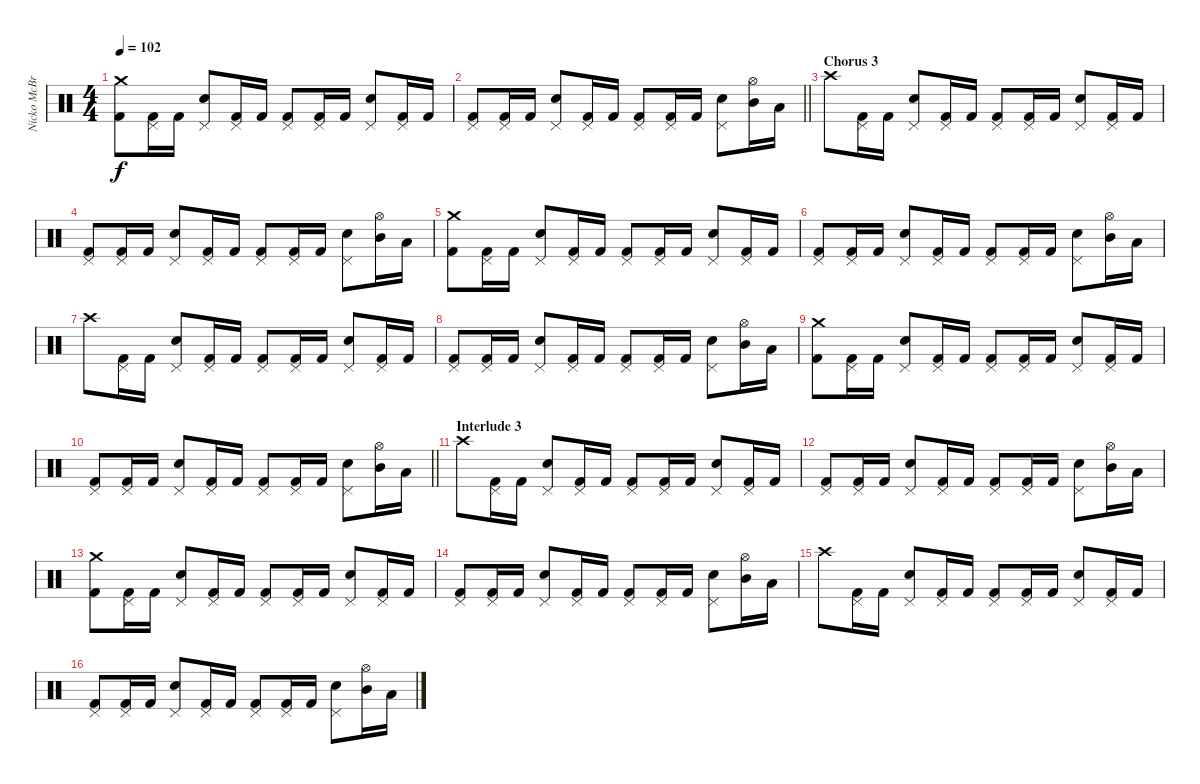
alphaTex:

\track ("Nicko McBrain" "Nicko McBr") {instrument percussion}
\staff {score}
\articulation defaults
\ts (4 4)
\tempo 102
\clef neutral
\ks c
("Crash medium (hit)" "Kick (hit) 2").8{dy f} ("Pedal Hi-Hat (hit)" "Kick (hit) 2").16 "Kick (hit) 2".16 ("Pedal Hi-Hat (hit)" "Electric Snare (hit)").8 ("Pedal Hi-Hat (hit)" "Kick (hit) 2").16 "Kick (hit) 2".16 ("Pedal Hi-Hat (hit)" "Kick (hit) 2").8 ("Pedal Hi-Hat (hit)" "Kick (hit) 2").16 "Kick (hit) 2".16 ("Pedal Hi-Hat (hit)" "Electric Snare (hit)").8 ("Pedal Hi-Hat (hit)" "Kick (hit) 2").16 "Kick (hit) 2".16 |
\barLineRight lightlight
("Pedal Hi-Hat (hit)" "Kick (hit) 2").8 ("Pedal Hi-Hat (hit)" "Kick (hit) 2").16 "Kick (hit) 2".16 ("Pedal Hi-Hat (hit)" "Electric Snare (hit)").8 ("Pedal Hi-Hat (hit)" "Kick (hit) 2").16 "Kick (hit) 2".16 ("Pedal Hi-Hat (hit)" "Kick (hit) 2").8 ("Pedal Hi-Hat (hit)" "Kick (hit) 2").16 "Kick (hit) 2".16 ("Pedal Hi-Hat (hit)" "Electric Snare (hit)").8 ("Hi-Hat (open)" "Mid Tom (hit)").16 "Low Tom (hit)".16 |
\section ("" "Chorus 3")
"Crash high (hit)".8 ("Pedal Hi-Hat (hit)" "Kick (hit) 2").16 "Kick (hit) 2".16 ("Pedal Hi-Hat (hit)" "Electric Snare (hit)").8 ("Pedal Hi-Hat (hit)" "Kick (hit) 2").16 "Kick (hit) 2".16 ("Pedal Hi-Hat (hit)" "Kick (hit) 2").8 ("Pedal Hi-Hat (hit)" "Kick (hit) 2").16 "Kick (hit) 2".16 ("Pedal Hi-Hat (hit)" "Electric Snare (hit)").8 ("Pedal Hi-Hat (hit)" "Kick (hit) 2").16 "Kick (hit) 2".16 |
("Pedal Hi-Hat (hit)" "Kick (hit) 2").8 ("Pedal Hi-Hat (hit)" "Kick (hit) 2").16 "Kick (hit) 2".16 ("Pedal Hi-Hat (hit)" "Electric Snare (hit)").8 ("Pedal Hi-Hat (hit)" "Kick (hit) 2").16 "Kick (hit) 2".16 ("Pedal Hi-Hat (hit)" "Kick (hit) 2").8 ("Pedal Hi-Hat (hit)" "Kick (hit) 2").16 "Kick (hit) 2".16 ("Pedal Hi-Hat (hit)" "Electric Snare (hit)").8 ("Hi-Hat (open)" "Mid Tom (hit)").16 "Low Tom (hit)".16 |
("Crash medium (hit)" "Kick (hit) 2").8 ("Pedal Hi-Hat (hit)" "Kick (hit) 2").16 "Kick (hit) 2".16 ("Pedal Hi-Hat (hit)" "Electric Snare (hit)").8 ("Pedal Hi-Hat (hit)" "Kick (hit) 2").16 "Kick (hit) 2".16 ("Pedal Hi-Hat (hit)" "Kick (hit) 2").8 ("Pedal Hi-Hat (hit)" "Kick (hit) 2").16 "Kick (hit) 2".16 ("Pedal Hi-Hat (hit)" "Electric Snare (hit)").8 ("Pedal Hi-Hat (hit)" "Kick (hit) 2").16 "Kick (hit) 2".16 |
("Pedal Hi-Hat (hit)" "Kick (hit) 2").8 ("Pedal Hi-Hat (hit)" "Kick (hit) 2").16 "Kick (hit) 2".16 ("Pedal Hi-Hat (hit)" "Electric Snare (hit)").8 ("Pedal Hi-Hat (hit)" "Kick (hit) 2").16 "Kick (hit) 2".16 ("Pedal Hi-Hat (hit)" "Kick (hit) 2").8 ("Pedal Hi-Hat (hit)" "Kick (hit) 2").16 "Kick (hit) 2".16 ("Pedal Hi-Hat (hit)" "Electric Snare (hit)").8 ("Hi-Hat (open)" "Mid Tom (hit)").16 "Low Tom (hit)".16 |
"Crash high (hit)".8 ("Pedal Hi-Hat (hit)" "Kick (hit) 2").16 "Kick (hit) 2".16 ("Pedal Hi-Hat (hit)" "Electric Snare (hit)").8 ("Pedal Hi-Hat (hit)" "Kick (hit) 2").16 "Kick (hit) 2".16 ("Pedal Hi-Hat (hit)" "Kick (hit) 2").8 ("Pedal Hi-Hat (hit)" "Kick (hit) 2").16 "Kick (hit) 2".16 ("Pedal Hi-Hat (hit)" "Electric Snare (hit)").8 ("Pedal Hi-Hat (hit)" "Kick (hit) 2").16 "Kick (hit) 2".16 |
("Pedal Hi-Hat (hit)" "Kick (hit) 2").8 ("Pedal Hi-Hat (hit)" "Kick (hit) 2").16 "Kick (hit) 2".16 ("Pedal Hi-Hat (hit)" "Electric Snare (hit)").8 ("Pedal Hi-Hat (hit)" "Kick (hit) 2").16 "Kick (hit) 2".16 ("Pedal Hi-Hat (hit)" "Kick (hit) 2").8 ("Pedal Hi-Hat (hit)" "Kick (hit) 2").16 "Kick (hit) 2".16 ("Pedal Hi-Hat (hit)" "Electric Snare (hit)").8 ("Hi-Hat (open)" "Mid Tom (hit)").16 "Low Tom (hit)".16 |
("Crash medium (hit)" "Kick (hit) 2").8 ("Pedal Hi-Hat (hit)" "Kick (hit) 2").16 "Kick (hit) 2".16 ("Pedal Hi-Hat (hit)" "Electric Snare (hit)").8 ("Pedal Hi-Hat (hit)" "Kick (hit) 2").16 "Kick (hit) 2".16 ("Pedal Hi-Hat (hit)" "Kick (hit) 2").8 ("Pedal Hi-Hat (hit)" "Kick (hit) 2").16 "Kick (hit) 2".16 ("Pedal Hi-Hat (hit)" "Electric Snare (hit)").8 ("Pedal Hi-Hat (hit)" "Kick (hit) 2").16 "Kick (hit) 2".16 |
\barLineRight lightlight
("Pedal Hi-Hat (hit)" "Kick (hit) 2").8 ("Pedal Hi-Hat (hit)" "Kick (hit) 2").16 "Kick (hit) 2".16 ("Pedal Hi-Hat (hit)" "Electric Snare (hit)").8 ("Pedal Hi-Hat (hit)" "Kick (hit) 2").16 "Kick (hit) 2".16 ("Pedal Hi-Hat (hit)" "Kick (hit) 2").8 ("Pedal Hi-Hat (hit)" "Kick (hit) 2").16 "Kick (hit) 2".16 ("Pedal Hi-Hat (hit)" "Electric Snare (hit)").8 ("Hi-Hat (open)" "Mid Tom (hit)").16 "Low Tom (hit)".16 |
\section ("" "Interlude 3")
"Crash high (hit)".8 ("Pedal Hi-Hat (hit)" "Kick (hit) 2").16 "Kick (hit) 2".16 ("Pedal Hi-Hat (hit)" "Electric Snare (hit)").8 ("Pedal Hi-Hat (hit)" "Kick (hit) 2").16 "Kick (hit) 2".16 ("Pedal Hi-Hat (hit)" "Kick (hit) 2").8 ("Pedal Hi-Hat (hit)" "Kick (hit) 2").16 "Kick (hit) 2".16 ("Pedal Hi-Hat (hit)" "Electric Snare (hit)").8 ("Pedal Hi-Hat (hit)" "Kick (hit) 2").16 "Kick (hit) 2".16 |
("Pedal Hi-Hat (hit)" "Kick (hit) 2").8 ("Pedal Hi-Hat (hit)" "Kick (hit) 2").16 "Kick (hit) 2".16 ("Pedal Hi-Hat (hit)" "Electric Snare (hit)").8 ("Pedal Hi-Hat (hit)" "Kick (hit) 2").16 "Kick (hit) 2".16 ("Pedal Hi-Hat (hit)" "Kick (hit) 2").8 ("Pedal Hi-Hat (hit)" "Kick (hit) 2").16 "Kick (hit) 2".16 ("Pedal Hi-Hat (hit)" "Electric Snare (hit)").8 ("Hi-Hat (open)" "Mid Tom (hit)").16 "Low Tom (hit)".16 |
("Crash medium (hit)" "Kick (hit) 2").8 ("Pedal Hi-Hat (hit)" "Kick (hit) 2").16 "Kick (hit) 2".16 ("Pedal Hi-Hat (hit)" "Electric Snare (hit)").8 ("Pedal Hi-Hat (hit)" "Kick (hit) 2").16 "Kick (hit) 2".16 ("Pedal Hi-Hat (hit)" "Kick (hit) 2").8 ("Pedal Hi-Hat (hit)" "Kick (hit) 2").16 "Kick (hit) 2".16 ("Pedal Hi-Hat (hit)" "Electric Snare (hit)").8 ("Pedal Hi-Hat (hit)" "Kick (hit) 2").16 "Kick (hit) 2".16 |
("Pedal Hi-Hat (hit)" "Kick (hit) 2").8 ("Pedal Hi-Hat (hit)" "Kick (hit) 2").16 "Kick (hit) 2".16 ("Pedal Hi-Hat (hit)" "Electric Snare (hit)").8 ("Pedal Hi-Hat (hit)" "Kick (hit) 2").16 "Kick (hit) 2".16 ("Pedal Hi-Hat (hit)" "Kick (hit) 2").8 ("Pedal Hi-Hat (hit)" "Kick (hit) 2").16 "Kick (hit) 2".16 ("Pedal Hi-Hat (hit)" "Electric Snare (hit)").8 ("Hi-Hat (open)" "Mid Tom (hit)").16 "Low Tom (hit)".16 |
"Crash high (hit)".8 ("Pedal Hi-Hat (hit)" "Kick (hit) 2").16 "Kick (hit) 2".16 ("Pedal Hi-Hat (hit)" "Electric Snare (hit)").8 ("Pedal Hi-Hat (hit)" "Kick (hit) 2").16 "Kick (hit) 2".16 ("Pedal Hi-Hat (hit)" "Kick (hit) 2").8 ("Pedal Hi-Hat (hit)" "Kick (hit) 2").16 "Kick (hit) 2".16 ("Pedal Hi-Hat (hit)" "Electric Snare (hit)").8 ("Pedal Hi-Hat (hit)" "Kick (hit) 2").16 "Kick (hit) 2".16 |
("Pedal Hi-Hat (hit)" "Kick (hit) 2").8 ("Pedal Hi-Hat (hit)" "Kick (hit) 2").16 "Kick (hit) 2".16 ("Pedal Hi-Hat (hit)" "Electric Snare (hit)").8 ("Pedal Hi-Hat (hit)" "Kick (hit) 2").16 "Kick (hit) 2".16 ("Pedal Hi-Hat (hit)" "Kick (hit) 2").8 ("Pedal Hi-Hat (hit)" "Kick (hit) 2").16 "Kick (hit) 2".16 ("Pedal Hi-Hat (hit)" "Electric Snare (hit)").8 ("Hi-Hat (open)" "Mid Tom (hit)").16 "Low Tom (hit)".16
